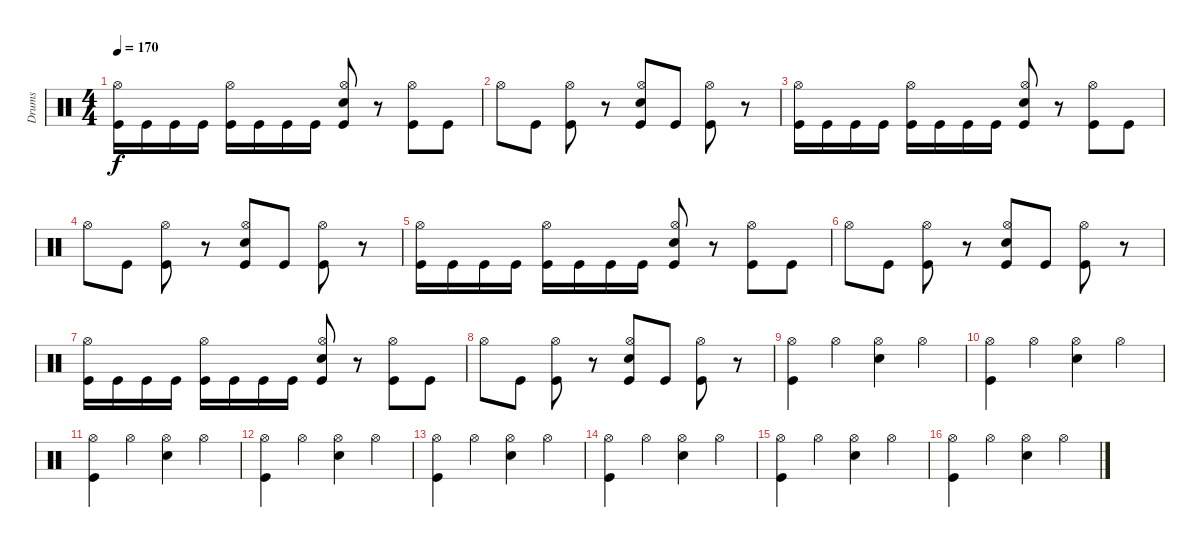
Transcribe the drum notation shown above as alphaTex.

\track ("Drums" "Drums") {instrument percussion}
\staff {score}
\articulation defaults
\ts (4 4)
\tempo 170
\clef neutral
\ks c
("Kick (hit)" "Hi-Hat (open)").16{dy f} "Kick (hit)".16 "Kick (hit)".16 "Kick (hit)".16 ("Kick (hit)" "Hi-Hat (open)").16 "Kick (hit)".16 "Kick (hit)".16 "Kick (hit)".16 ("Kick (hit)" "Hi-Hat (open)" "Snare (hit) 2").8 r.8 ("Kick (hit)" "Hi-Hat (open)").8 "Kick (hit)".8 |
"Hi-Hat (open)".8 "Kick (hit)".8 ("Kick (hit)" "Hi-Hat (open)").8 r.8 ("Kick (hit)" "Hi-Hat (open)" "Snare (hit) 2").8 "Kick (hit)".8 ("Kick (hit)" "Hi-Hat (open)").8 r.8 |
("Kick (hit)" "Hi-Hat (open)").16 "Kick (hit)".16 "Kick (hit)".16 "Kick (hit)".16 ("Kick (hit)" "Hi-Hat (open)").16 "Kick (hit)".16 "Kick (hit)".16 "Kick (hit)".16 ("Kick (hit)" "Hi-Hat (open)" "Snare (hit) 2").8 r.8 ("Kick (hit)" "Hi-Hat (open)").8 "Kick (hit)".8 |
"Hi-Hat (open)".8 "Kick (hit)".8 ("Kick (hit)" "Hi-Hat (open)").8 r.8 ("Kick (hit)" "Hi-Hat (open)" "Snare (hit) 2").8 "Kick (hit)".8 ("Kick (hit)" "Hi-Hat (open)").8 r.8 |
("Kick (hit)" "Hi-Hat (open)").16 "Kick (hit)".16 "Kick (hit)".16 "Kick (hit)".16 ("Kick (hit)" "Hi-Hat (open)").16 "Kick (hit)".16 "Kick (hit)".16 "Kick (hit)".16 ("Kick (hit)" "Hi-Hat (open)" "Snare (hit) 2").8 r.8 ("Kick (hit)" "Hi-Hat (open)").8 "Kick (hit)".8 |
"Hi-Hat (open)".8 "Kick (hit)".8 ("Kick (hit)" "Hi-Hat (open)").8 r.8 ("Kick (hit)" "Hi-Hat (open)" "Snare (hit) 2").8 "Kick (hit)".8 ("Kick (hit)" "Hi-Hat (open)").8 r.8 |
("Kick (hit)" "Hi-Hat (open)").16 "Kick (hit)".16 "Kick (hit)".16 "Kick (hit)".16 ("Kick (hit)" "Hi-Hat (open)").16 "Kick (hit)".16 "Kick (hit)".16 "Kick (hit)".16 ("Kick (hit)" "Hi-Hat (open)" "Snare (hit) 2").8 r.8 ("Kick (hit)" "Hi-Hat (open)").8 "Kick (hit)".8 |
"Hi-Hat (open)".8 "Kick (hit)".8 ("Kick (hit)" "Hi-Hat (open)").8 r.8 ("Kick (hit)" "Hi-Hat (open)" "Snare (hit) 2").8 "Kick (hit)".8 ("Kick (hit)" "Hi-Hat (open)").8 r.8 |
("Hi-Hat (open)" "Kick (hit)").4 "Hi-Hat (open)".4 ("Hi-Hat (open)" "Snare (hit) 2").4 "Hi-Hat (open)".4 |
("Hi-Hat (open)" "Kick (hit)").4 "Hi-Hat (open)".4 ("Hi-Hat (open)" "Snare (hit) 2").4 "Hi-Hat (open)".4 |
("Hi-Hat (open)" "Kick (hit)").4 "Hi-Hat (open)".4 ("Hi-Hat (open)" "Snare (hit) 2").4 "Hi-Hat (open)".4 |
("Hi-Hat (open)" "Kick (hit)").4 "Hi-Hat (open)".4 ("Hi-Hat (open)" "Snare (hit) 2").4 "Hi-Hat (open)".4 |
("Hi-Hat (open)" "Kick (hit)").4 "Hi-Hat (open)".4 ("Hi-Hat (open)" "Snare (hit) 2").4 "Hi-Hat (open)".4 |
("Hi-Hat (open)" "Kick (hit)").4 "Hi-Hat (open)".4 ("Hi-Hat (open)" "Snare (hit) 2").4 "Hi-Hat (open)".4 |
("Hi-Hat (open)" "Kick (hit)").4 "Hi-Hat (open)".4 ("Hi-Hat (open)" "Snare (hit) 2").4 "Hi-Hat (open)".4 |
("Hi-Hat (open)" "Kick (hit)").4 "Hi-Hat (open)".4 ("Hi-Hat (open)" "Snare (hit) 2").4 "Hi-Hat (open)".4
